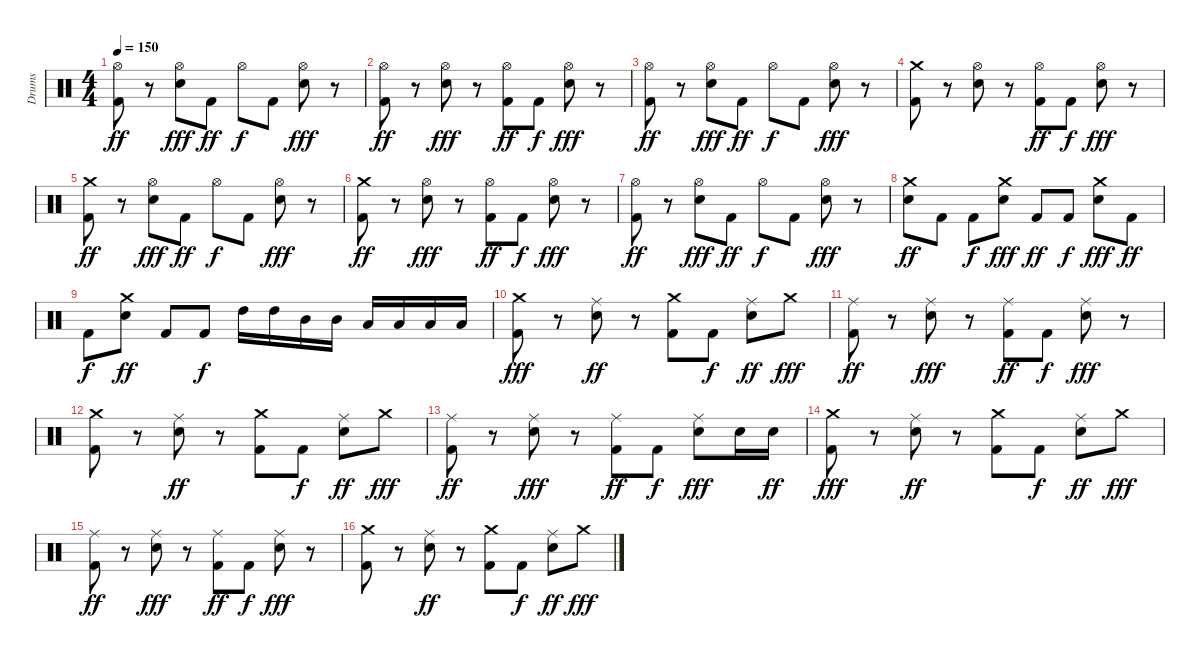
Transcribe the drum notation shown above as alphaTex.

\track ("Drums" "Drums") {instrument percussion}
\staff {score}
\articulation defaults
\ts (4 4)
\tempo 150
\clef neutral
\ks c
("Kick (hit) 2" "Hi-Hat (open)").8{dy ff} r.8 ("Snare (hit) 2" "Hi-Hat (open)").8{dy fff} "Kick (hit) 2".8{dy ff} "Hi-Hat (open)".8{dy f} "Kick (hit) 2".8 ("Snare (hit) 2" "Hi-Hat (open)").8{dy fff} r.8 |
("Hi-Hat (open)" "Kick (hit) 2").8{dy ff} r.8 ("Snare (hit) 2" "Hi-Hat (open)").8{dy fff} r.8 ("Kick (hit) 2" "Hi-Hat (open)").8{dy ff} "Kick (hit) 2".8{dy f} ("Snare (hit) 2" "Hi-Hat (open)").8{dy fff} r.8 |
("Kick (hit) 2" "Hi-Hat (open)").8{dy ff} r.8 ("Snare (hit) 2" "Hi-Hat (open)").8{dy fff} "Kick (hit) 2".8{dy ff} "Hi-Hat (open)".8{dy f} "Kick (hit) 2".8 ("Snare (hit) 2" "Hi-Hat (open)").8{dy fff} r.8 |
("Kick (hit) 2" "Crash medium (hit)").8 r.8 ("Snare (hit) 2" "Hi-Hat (open)").8 r.8 ("Kick (hit) 2" "Hi-Hat (open)").8{dy ff} "Kick (hit) 2".8{dy f} ("Snare (hit) 2" "Hi-Hat (open)").8{dy fff} r.8 |
("Crash medium (hit)" "Kick (hit) 2").8{dy ff} r.8 ("Snare (hit) 2" "Hi-Hat (open)").8{dy fff} "Kick (hit) 2".8{dy ff} "Hi-Hat (open)".8{dy f} "Kick (hit) 2".8 ("Snare (hit) 2" "Hi-Hat (open)").8{dy fff} r.8 |
("Crash medium (hit)" "Kick (hit) 2").8{dy ff} r.8 ("Snare (hit) 2" "Hi-Hat (open)").8{dy fff} r.8 ("Kick (hit) 2" "Hi-Hat (open)").8{dy ff} "Kick (hit) 2".8{dy f} ("Snare (hit) 2" "Hi-Hat (open)").8{dy fff} r.8 |
("Kick (hit) 2" "Hi-Hat (open)").8{dy ff} r.8 ("Snare (hit) 2" "Hi-Hat (open)").8{dy fff} "Kick (hit) 2".8{dy ff} "Hi-Hat (open)".8{dy f} "Kick (hit) 2".8 ("Snare (hit) 2" "Hi-Hat (open)").8{dy fff} r.8 |
("Snare (hit) 2" "Crash medium (hit)").8{dy ff} "Kick (hit) 2".8 "Kick (hit) 2".8{dy f} ("Snare (hit) 2" "Crash medium (hit)").8{dy fff} "Kick (hit) 2".8{dy ff} "Kick (hit) 2".8{dy f} ("Snare (hit) 2" "Crash medium (hit)").8{dy fff} "Kick (hit) 2".8{dy ff} |
"Kick (hit) 2".8{dy f} ("Crash medium (hit)" "Snare (hit) 2").8{dy ff} "Kick (hit) 2".8 "Kick (hit) 2".8{dy f} "High Tom (hit)".16{volume 14} "High Tom (hit)".16{volume 15} "Mid Tom (hit)".16{volume 15} "Mid Tom (hit)".16 "Low Tom (hit)".16{volume 15} "Low Tom (hit)".16{volume 16} "Low Floor Tom (hit)".16 "Low Floor Tom (hit)".16 |
("Kick (hit) 2" "Crash medium (hit)").8{dy fff volume 16} r.8 ("Ride (middle)" "Snare (hit) 2").8{dy ff} r.8 ("Crash medium (hit)" "Kick (hit) 2").8 "Kick (hit) 2".8{dy f} ("Ride (middle)" "Snare (hit) 2").8{dy ff} "Crash medium (hit)".8{dy fff} |
("Ride (middle)" "Kick (hit) 2").8{dy ff} r.8 ("Snare (hit) 2" "Ride (middle)").8{dy fff} r.8 ("Kick (hit) 2" "Ride (middle)").8{dy ff} "Kick (hit) 2".8{dy f} ("Snare (hit) 2" "Ride (middle)").8{dy fff} r.8 |
("Kick (hit) 2" "Crash medium (hit)").8 r.8 ("Ride (middle)" "Snare (hit) 2").8{dy ff} r.8 ("Crash medium (hit)" "Kick (hit) 2").8 "Kick (hit) 2".8{dy f} ("Ride (middle)" "Snare (hit) 2").8{dy ff} "Crash medium (hit)".8{dy fff} |
("Kick (hit) 2" "Ride (middle)").8{dy ff} r.8 ("Snare (hit) 2" "Ride (middle)").8{dy fff} r.8 ("Kick (hit) 2" "Ride (middle)").8{dy ff} "Kick (hit) 2".8{dy f} ("Snare (hit) 2" "Ride (middle)").8{dy fff} "Snare (hit) 2".16 "Snare (hit) 2".16{dy ff} |
("Kick (hit) 2" "Crash medium (hit)").8{dy fff} r.8 ("Ride (middle)" "Snare (hit) 2").8{dy ff} r.8 ("Crash medium (hit)" "Kick (hit) 2").8 "Kick (hit) 2".8{dy f} ("Ride (middle)" "Snare (hit) 2").8{dy ff} "Crash medium (hit)".8{dy fff} |
("Ride (middle)" "Kick (hit) 2").8{dy ff} r.8 ("Snare (hit) 2" "Ride (middle)").8{dy fff} r.8 ("Kick (hit) 2" "Ride (middle)").8{dy ff} "Kick (hit) 2".8{dy f} ("Snare (hit) 2" "Ride (middle)").8{dy fff} r.8 |
("Kick (hit) 2" "Crash medium (hit)").8 r.8 ("Ride (middle)" "Snare (hit) 2").8{dy ff} r.8 ("Crash medium (hit)" "Kick (hit) 2").8 "Kick (hit) 2".8{dy f} ("Ride (middle)" "Snare (hit) 2").8{dy ff} "Crash medium (hit)".8{dy fff}
